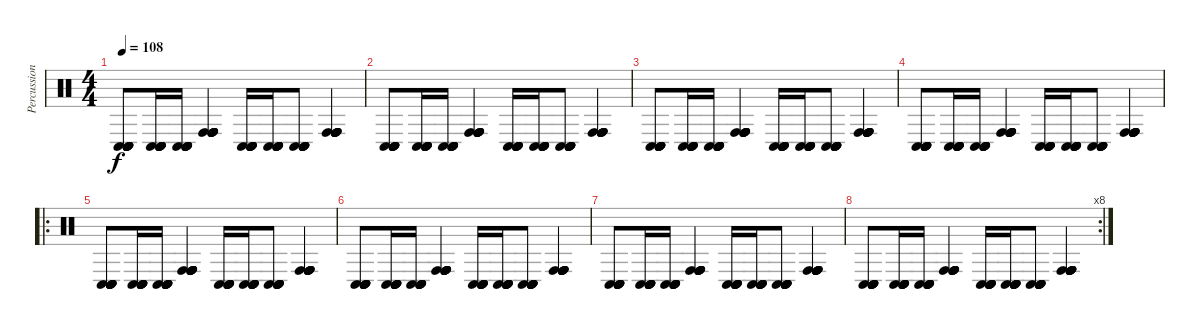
\track ("Percussions" "Percussion") {instrument percussion}
\staff {score}
\articulation defaults
\ts (4 4)
\tempo 108
\clef neutral
\ks c
("Conga low (hit)" "Conga low (hit)" "Conga low (hit)" "Conga low (hit)" "Conga low (hit)" "Conga low (hit)").8{dy f} ("Conga low (hit)" "Conga low (hit)" "Conga low (hit)" "Conga low (hit)" "Conga low (hit)" "Conga low (hit)").16 ("Conga low (hit)" "Conga low (hit)" "Conga low (hit)" "Conga low (hit)" "Conga low (hit)" "Conga low (hit)").16 ("Conga high (hit)" "Conga high (hit)" "Conga high (hit)" "Conga high (hit)" "Conga high (hit)" "Conga high (hit)").4 ("Conga low (hit)" "Conga low (hit)" "Conga low (hit)" "Conga low (hit)" "Conga low (hit)" "Conga low (hit)").16 ("Conga low (hit)" "Conga low (hit)" "Conga low (hit)" "Conga low (hit)" "Conga low (hit)" "Conga low (hit)").16 ("Conga low (hit)" "Conga low (hit)" "Conga low (hit)" "Conga low (hit)" "Conga low (hit)" "Conga low (hit)").8 ("Conga high (hit)" "Conga high (hit)" "Conga high (hit)" "Conga high (hit)" "Conga high (hit)" "Conga high (hit)").4 |
("Conga low (hit)" "Conga low (hit)" "Conga low (hit)" "Conga low (hit)" "Conga low (hit)" "Conga low (hit)").8 ("Conga low (hit)" "Conga low (hit)" "Conga low (hit)" "Conga low (hit)" "Conga low (hit)" "Conga low (hit)").16 ("Conga low (hit)" "Conga low (hit)" "Conga low (hit)" "Conga low (hit)" "Conga low (hit)" "Conga low (hit)").16 ("Conga high (hit)" "Conga high (hit)" "Conga high (hit)" "Conga high (hit)" "Conga high (hit)" "Conga high (hit)").4 ("Conga low (hit)" "Conga low (hit)" "Conga low (hit)" "Conga low (hit)" "Conga low (hit)" "Conga low (hit)").16 ("Conga low (hit)" "Conga low (hit)" "Conga low (hit)" "Conga low (hit)" "Conga low (hit)" "Conga low (hit)").16 ("Conga low (hit)" "Conga low (hit)" "Conga low (hit)" "Conga low (hit)" "Conga low (hit)" "Conga low (hit)").8 ("Conga high (hit)" "Conga high (hit)" "Conga high (hit)" "Conga high (hit)" "Conga high (hit)" "Conga high (hit)").4 |
("Conga low (hit)" "Conga low (hit)" "Conga low (hit)" "Conga low (hit)" "Conga low (hit)" "Conga low (hit)").8 ("Conga low (hit)" "Conga low (hit)" "Conga low (hit)" "Conga low (hit)" "Conga low (hit)" "Conga low (hit)").16 ("Conga low (hit)" "Conga low (hit)" "Conga low (hit)" "Conga low (hit)" "Conga low (hit)" "Conga low (hit)").16 ("Conga high (hit)" "Conga high (hit)" "Conga high (hit)" "Conga high (hit)" "Conga high (hit)" "Conga high (hit)").4 ("Conga low (hit)" "Conga low (hit)" "Conga low (hit)" "Conga low (hit)" "Conga low (hit)" "Conga low (hit)").16 ("Conga low (hit)" "Conga low (hit)" "Conga low (hit)" "Conga low (hit)" "Conga low (hit)" "Conga low (hit)").16 ("Conga low (hit)" "Conga low (hit)" "Conga low (hit)" "Conga low (hit)" "Conga low (hit)" "Conga low (hit)").8 ("Conga high (hit)" "Conga high (hit)" "Conga high (hit)" "Conga high (hit)" "Conga high (hit)" "Conga high (hit)").4 |
("Conga low (hit)" "Conga low (hit)" "Conga low (hit)" "Conga low (hit)" "Conga low (hit)" "Conga low (hit)").8 ("Conga low (hit)" "Conga low (hit)" "Conga low (hit)" "Conga low (hit)" "Conga low (hit)" "Conga low (hit)").16 ("Conga low (hit)" "Conga low (hit)" "Conga low (hit)" "Conga low (hit)" "Conga low (hit)" "Conga low (hit)").16 ("Conga high (hit)" "Conga high (hit)" "Conga high (hit)" "Conga high (hit)" "Conga high (hit)" "Conga high (hit)").4 ("Conga low (hit)" "Conga low (hit)" "Conga low (hit)" "Conga low (hit)" "Conga low (hit)" "Conga low (hit)").16 ("Conga low (hit)" "Conga low (hit)" "Conga low (hit)" "Conga low (hit)" "Conga low (hit)" "Conga low (hit)").16 ("Conga low (hit)" "Conga low (hit)" "Conga low (hit)" "Conga low (hit)" "Conga low (hit)" "Conga low (hit)").8 ("Conga high (hit)" "Conga high (hit)" "Conga high (hit)" "Conga high (hit)" "Conga high (hit)" "Conga high (hit)").4 |
\ro
("Conga low (hit)" "Conga low (hit)" "Conga low (hit)" "Conga low (hit)" "Conga low (hit)" "Conga low (hit)").8 ("Conga low (hit)" "Conga low (hit)" "Conga low (hit)" "Conga low (hit)" "Conga low (hit)" "Conga low (hit)").16 ("Conga low (hit)" "Conga low (hit)" "Conga low (hit)" "Conga low (hit)" "Conga low (hit)" "Conga low (hit)").16 ("Conga high (hit)" "Conga high (hit)" "Conga high (hit)" "Conga high (hit)" "Conga high (hit)" "Conga high (hit)").4 ("Conga low (hit)" "Conga low (hit)" "Conga low (hit)" "Conga low (hit)" "Conga low (hit)" "Conga low (hit)").16 ("Conga low (hit)" "Conga low (hit)" "Conga low (hit)" "Conga low (hit)" "Conga low (hit)" "Conga low (hit)").16 ("Conga low (hit)" "Conga low (hit)" "Conga low (hit)" "Conga low (hit)" "Conga low (hit)" "Conga low (hit)").8 ("Conga high (hit)" "Conga high (hit)" "Conga high (hit)" "Conga high (hit)" "Conga high (hit)" "Conga high (hit)").4 |
("Conga low (hit)" "Conga low (hit)" "Conga low (hit)" "Conga low (hit)" "Conga low (hit)" "Conga low (hit)").8 ("Conga low (hit)" "Conga low (hit)" "Conga low (hit)" "Conga low (hit)" "Conga low (hit)" "Conga low (hit)").16 ("Conga low (hit)" "Conga low (hit)" "Conga low (hit)" "Conga low (hit)" "Conga low (hit)" "Conga low (hit)").16 ("Conga high (hit)" "Conga high (hit)" "Conga high (hit)" "Conga high (hit)" "Conga high (hit)" "Conga high (hit)").4 ("Conga low (hit)" "Conga low (hit)" "Conga low (hit)" "Conga low (hit)" "Conga low (hit)" "Conga low (hit)").16 ("Conga low (hit)" "Conga low (hit)" "Conga low (hit)" "Conga low (hit)" "Conga low (hit)" "Conga low (hit)").16 ("Conga low (hit)" "Conga low (hit)" "Conga low (hit)" "Conga low (hit)" "Conga low (hit)" "Conga low (hit)").8 ("Conga high (hit)" "Conga high (hit)" "Conga high (hit)" "Conga high (hit)" "Conga high (hit)" "Conga high (hit)").4 |
("Conga low (hit)" "Conga low (hit)" "Conga low (hit)" "Conga low (hit)" "Conga low (hit)" "Conga low (hit)").8 ("Conga low (hit)" "Conga low (hit)" "Conga low (hit)" "Conga low (hit)" "Conga low (hit)" "Conga low (hit)").16 ("Conga low (hit)" "Conga low (hit)" "Conga low (hit)" "Conga low (hit)" "Conga low (hit)" "Conga low (hit)").16 ("Conga high (hit)" "Conga high (hit)" "Conga high (hit)" "Conga high (hit)" "Conga high (hit)" "Conga high (hit)").4 ("Conga low (hit)" "Conga low (hit)" "Conga low (hit)" "Conga low (hit)" "Conga low (hit)" "Conga low (hit)").16 ("Conga low (hit)" "Conga low (hit)" "Conga low (hit)" "Conga low (hit)" "Conga low (hit)" "Conga low (hit)").16 ("Conga low (hit)" "Conga low (hit)" "Conga low (hit)" "Conga low (hit)" "Conga low (hit)" "Conga low (hit)").8 ("Conga high (hit)" "Conga high (hit)" "Conga high (hit)" "Conga high (hit)" "Conga high (hit)" "Conga high (hit)").4 |
\rc 8
("Conga low (hit)" "Conga low (hit)" "Conga low (hit)" "Conga low (hit)" "Conga low (hit)" "Conga low (hit)").8 ("Conga low (hit)" "Conga low (hit)" "Conga low (hit)" "Conga low (hit)" "Conga low (hit)" "Conga low (hit)").16 ("Conga low (hit)" "Conga low (hit)" "Conga low (hit)" "Conga low (hit)" "Conga low (hit)" "Conga low (hit)").16 ("Conga high (hit)" "Conga high (hit)" "Conga high (hit)" "Conga high (hit)" "Conga high (hit)" "Conga high (hit)").4 ("Conga low (hit)" "Conga low (hit)" "Conga low (hit)" "Conga low (hit)" "Conga low (hit)" "Conga low (hit)").16 ("Conga low (hit)" "Conga low (hit)" "Conga low (hit)" "Conga low (hit)" "Conga low (hit)" "Conga low (hit)").16 ("Conga low (hit)" "Conga low (hit)" "Conga low (hit)" "Conga low (hit)" "Conga low (hit)" "Conga low (hit)").8 ("Conga high (hit)" "Conga high (hit)" "Conga high (hit)" "Conga high (hit)" "Conga high (hit)" "Conga high (hit)").4
